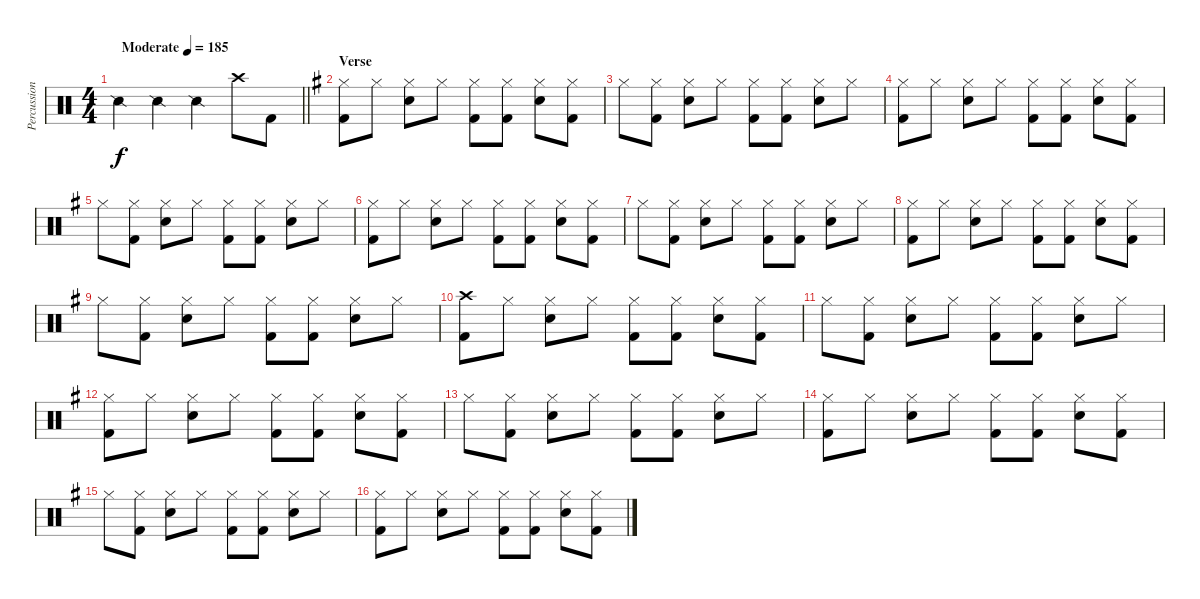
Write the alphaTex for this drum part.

\track ("Percussion" "Percussion") {instrument percussion}
\staff {score}
\articulation defaults
\ts (4 4)
\tempo (185 "Moderate")
\clef neutral
\barLineRight lightlight
\ks c "Snare (side stick) 2".4{dy f} "Snare (side stick) 2".4 "Snare (side stick) 2".4 "Crash high (hit)".8 "Kick (hit) 2".8
|
\section ("" "Verse")
\ks g
("Hi-Hat (closed)" "Kick (hit) 2").8 "Hi-Hat (closed)".8 ("Hi-Hat (closed)" "Snare (hit) 2").8 "Hi-Hat (closed)".8 ("Hi-Hat (closed)" "Kick (hit) 2").8 ("Hi-Hat (closed)" "Kick (hit) 2").8 ("Hi-Hat (closed)" "Snare (hit) 2").8 ("Hi-Hat (closed)" "Kick (hit) 2").8 |
"Hi-Hat (closed)".8 ("Hi-Hat (closed)" "Kick (hit) 2").8 ("Hi-Hat (closed)" "Snare (hit) 2").8 "Hi-Hat (closed)".8 ("Hi-Hat (closed)" "Kick (hit) 2").8 ("Hi-Hat (closed)" "Kick (hit) 2").8 ("Hi-Hat (closed)" "Snare (hit) 2").8 "Hi-Hat (closed)".8 |
("Hi-Hat (closed)" "Kick (hit) 2").8 "Hi-Hat (closed)".8 ("Hi-Hat (closed)" "Snare (hit) 2").8 "Hi-Hat (closed)".8 ("Hi-Hat (closed)" "Kick (hit) 2").8 ("Hi-Hat (closed)" "Kick (hit) 2").8 ("Hi-Hat (closed)" "Snare (hit) 2").8 ("Hi-Hat (closed)" "Kick (hit) 2").8 |
"Hi-Hat (closed)".8 ("Hi-Hat (closed)" "Kick (hit) 2").8 ("Hi-Hat (closed)" "Snare (hit) 2").8 "Hi-Hat (closed)".8 ("Hi-Hat (closed)" "Kick (hit) 2").8 ("Hi-Hat (closed)" "Kick (hit) 2").8 ("Hi-Hat (closed)" "Snare (hit) 2").8 "Hi-Hat (closed)".8 |
("Hi-Hat (closed)" "Kick (hit) 2").8 "Hi-Hat (closed)".8 ("Hi-Hat (closed)" "Snare (hit) 2").8 "Hi-Hat (closed)".8 ("Hi-Hat (closed)" "Kick (hit) 2").8 ("Hi-Hat (closed)" "Kick (hit) 2").8 ("Hi-Hat (closed)" "Snare (hit) 2").8 ("Hi-Hat (closed)" "Kick (hit) 2").8 |
"Hi-Hat (closed)".8 ("Hi-Hat (closed)" "Kick (hit) 2").8 ("Hi-Hat (closed)" "Snare (hit) 2").8 "Hi-Hat (closed)".8 ("Hi-Hat (closed)" "Kick (hit) 2").8 ("Hi-Hat (closed)" "Kick (hit) 2").8 ("Hi-Hat (closed)" "Snare (hit) 2").8 "Hi-Hat (closed)".8 |
("Hi-Hat (closed)" "Kick (hit) 2").8 "Hi-Hat (closed)".8 ("Hi-Hat (closed)" "Snare (hit) 2").8 "Hi-Hat (closed)".8 ("Hi-Hat (closed)" "Kick (hit) 2").8 ("Hi-Hat (closed)" "Kick (hit) 2").8 ("Hi-Hat (closed)" "Snare (hit) 2").8 ("Hi-Hat (closed)" "Kick (hit) 2").8 |
"Hi-Hat (closed)".8 ("Hi-Hat (closed)" "Kick (hit) 2").8 ("Hi-Hat (closed)" "Snare (hit) 2").8 "Hi-Hat (closed)".8 ("Hi-Hat (closed)" "Kick (hit) 2").8 ("Hi-Hat (closed)" "Kick (hit) 2").8 ("Hi-Hat (closed)" "Snare (hit) 2").8 "Hi-Hat (closed)".8 |
("Crash high (hit)" "Kick (hit) 2").8 "Hi-Hat (closed)".8 ("Hi-Hat (closed)" "Snare (hit) 2").8 "Hi-Hat (closed)".8 ("Hi-Hat (closed)" "Kick (hit) 2").8 ("Hi-Hat (closed)" "Kick (hit) 2").8 ("Hi-Hat (closed)" "Snare (hit) 2").8 ("Hi-Hat (closed)" "Kick (hit) 2").8 |
"Hi-Hat (closed)".8 ("Hi-Hat (closed)" "Kick (hit) 2").8 ("Hi-Hat (closed)" "Snare (hit) 2").8 "Hi-Hat (closed)".8 ("Hi-Hat (closed)" "Kick (hit) 2").8 ("Hi-Hat (closed)" "Kick (hit) 2").8 ("Hi-Hat (closed)" "Snare (hit) 2").8 "Hi-Hat (closed)".8 |
("Hi-Hat (closed)" "Kick (hit) 2").8 "Hi-Hat (closed)".8 ("Hi-Hat (closed)" "Snare (hit) 2").8 "Hi-Hat (closed)".8 ("Hi-Hat (closed)" "Kick (hit) 2").8 ("Hi-Hat (closed)" "Kick (hit) 2").8 ("Hi-Hat (closed)" "Snare (hit) 2").8 ("Hi-Hat (closed)" "Kick (hit) 2").8 |
"Hi-Hat (closed)".8 ("Hi-Hat (closed)" "Kick (hit) 2").8 ("Hi-Hat (closed)" "Snare (hit) 2").8 "Hi-Hat (closed)".8 ("Hi-Hat (closed)" "Kick (hit) 2").8 ("Hi-Hat (closed)" "Kick (hit) 2").8 ("Hi-Hat (closed)" "Snare (hit) 2").8 "Hi-Hat (closed)".8 |
("Hi-Hat (closed)" "Kick (hit) 2").8 "Hi-Hat (closed)".8 ("Hi-Hat (closed)" "Snare (hit) 2").8 "Hi-Hat (closed)".8 ("Hi-Hat (closed)" "Kick (hit) 2").8 ("Hi-Hat (closed)" "Kick (hit) 2").8 ("Hi-Hat (closed)" "Snare (hit) 2").8 ("Hi-Hat (closed)" "Kick (hit) 2").8 |
"Hi-Hat (closed)".8 ("Hi-Hat (closed)" "Kick (hit) 2").8 ("Hi-Hat (closed)" "Snare (hit) 2").8 "Hi-Hat (closed)".8 ("Hi-Hat (closed)" "Kick (hit) 2").8 ("Hi-Hat (closed)" "Kick (hit) 2").8 ("Hi-Hat (closed)" "Snare (hit) 2").8 "Hi-Hat (closed)".8 |
("Hi-Hat (closed)" "Kick (hit) 2").8 "Hi-Hat (closed)".8 ("Hi-Hat (closed)" "Snare (hit) 2").8 "Hi-Hat (closed)".8 ("Hi-Hat (closed)" "Kick (hit) 2").8 ("Hi-Hat (closed)" "Kick (hit) 2").8 ("Hi-Hat (closed)" "Snare (hit) 2").8 ("Hi-Hat (closed)" "Kick (hit) 2").8
